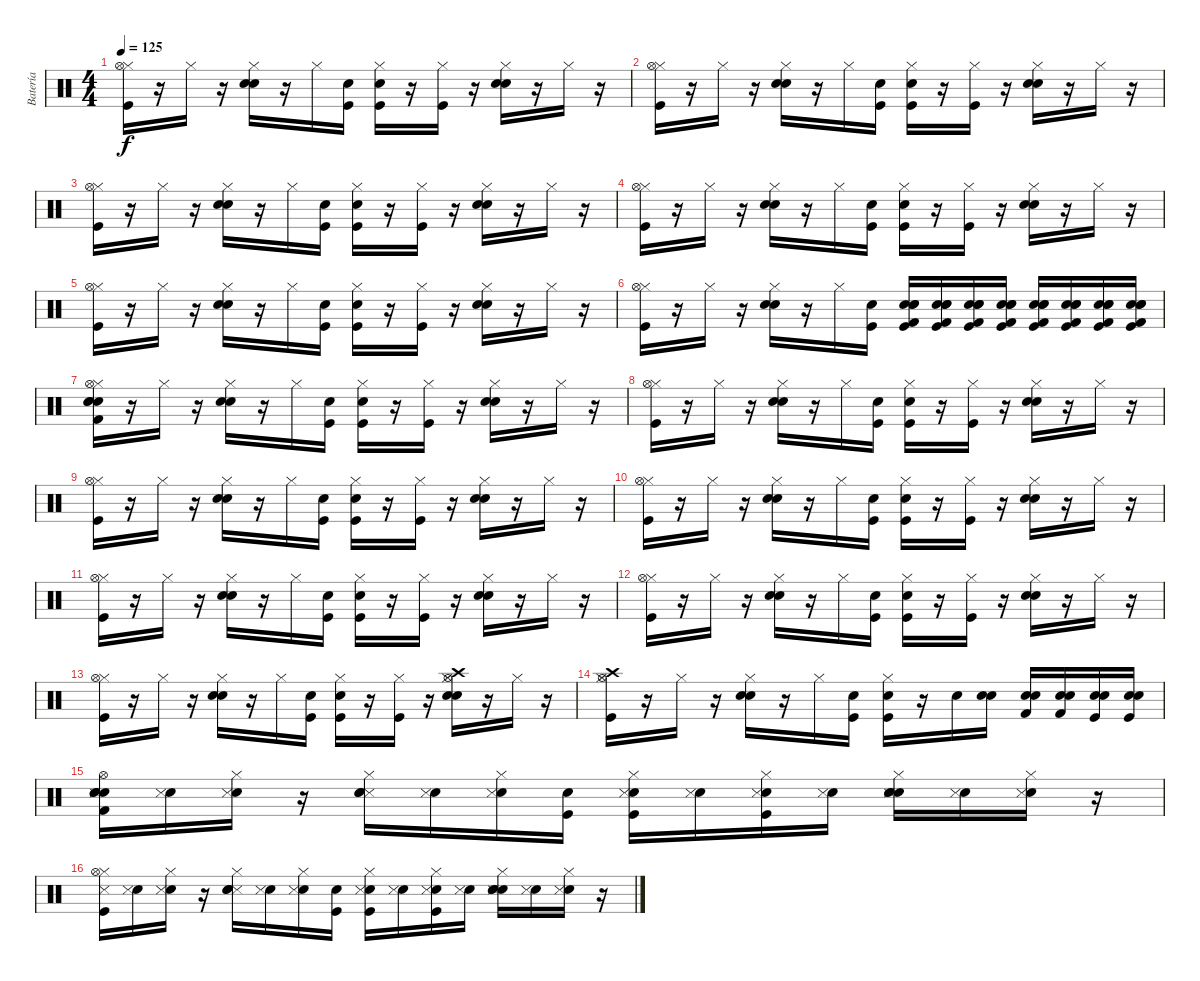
\track ("Batería" "Batería") {instrument percussion}
\staff {score}
\articulation defaults
\ts (4 4)
\tempo 125
\clef neutral
\ks c
("Hi-Hat (closed)" "Kick (hit)" "Hi-Hat (open)").16{dy f} r.16 "Hi-Hat (closed)".16 r.16 ("Snare (hit) 2" "Electric Snare (hit)" "Hi-Hat (closed)").16 r.16 "Hi-Hat (closed)".16 ("Snare (hit)" "Kick (hit)").16 ("Snare (hit)" "Hi-Hat (closed)" "Kick (hit)").16 r.16 ("Hi-Hat (closed)" "Kick (hit)").16 r.16 ("Hi-Hat (closed)" "Snare (hit) 2" "Electric Snare (hit)").16 r.16 "Hi-Hat (closed)".16 r.16 |
("Hi-Hat (closed)" "Kick (hit)" "Hi-Hat (open)").16 r.16 "Hi-Hat (closed)".16 r.16 ("Snare (hit) 2" "Electric Snare (hit)" "Hi-Hat (closed)").16 r.16 "Hi-Hat (closed)".16 ("Snare (hit)" "Kick (hit)").16 ("Snare (hit)" "Hi-Hat (closed)" "Kick (hit)").16 r.16 ("Hi-Hat (closed)" "Kick (hit)").16 r.16 ("Hi-Hat (closed)" "Snare (hit) 2" "Electric Snare (hit)").16 r.16 "Hi-Hat (closed)".16 r.16 |
("Hi-Hat (closed)" "Kick (hit)" "Hi-Hat (open)").16 r.16 "Hi-Hat (closed)".16 r.16 ("Snare (hit) 2" "Electric Snare (hit)" "Hi-Hat (closed)").16 r.16 "Hi-Hat (closed)".16 ("Snare (hit)" "Kick (hit)").16 ("Snare (hit)" "Hi-Hat (closed)" "Kick (hit)").16 r.16 ("Hi-Hat (closed)" "Kick (hit)").16 r.16 ("Hi-Hat (closed)" "Snare (hit) 2" "Electric Snare (hit)").16 r.16 "Hi-Hat (closed)".16 r.16 |
("Hi-Hat (closed)" "Kick (hit)" "Hi-Hat (open)").16 r.16 "Hi-Hat (closed)".16 r.16 ("Snare (hit) 2" "Electric Snare (hit)" "Hi-Hat (closed)").16 r.16 "Hi-Hat (closed)".16 ("Snare (hit)" "Kick (hit)").16 ("Snare (hit)" "Hi-Hat (closed)" "Kick (hit)").16 r.16 ("Hi-Hat (closed)" "Kick (hit)").16 r.16 ("Hi-Hat (closed)" "Snare (hit) 2" "Electric Snare (hit)").16 r.16 "Hi-Hat (closed)".16 r.16 |
("Hi-Hat (closed)" "Kick (hit)" "Hi-Hat (open)").16 r.16 "Hi-Hat (closed)".16 r.16 ("Snare (hit) 2" "Electric Snare (hit)" "Hi-Hat (closed)").16 r.16 "Hi-Hat (closed)".16 ("Snare (hit)" "Kick (hit)").16 ("Snare (hit)" "Hi-Hat (closed)" "Kick (hit)").16 r.16 ("Hi-Hat (closed)" "Kick (hit)").16 r.16 ("Hi-Hat (closed)" "Snare (hit) 2" "Electric Snare (hit)").16 r.16 "Hi-Hat (closed)".16 r.16 |
("Hi-Hat (closed)" "Kick (hit)" "Hi-Hat (open)").16 r.16 "Hi-Hat (closed)".16 r.16 ("Snare (hit) 2" "Electric Snare (hit)" "Hi-Hat (closed)").16 r.16 "Hi-Hat (closed)".16 ("Snare (hit)" "Kick (hit)").16 ("Snare (hit)" "Kick (hit)" "Kick (hit) 2" "Snare (hit) 2" "Electric Snare (hit)").16 ("Snare (hit)" "Kick (hit)" "Kick (hit) 2" "Snare (hit) 2" "Electric Snare (hit)").16 ("Snare (hit)" "Kick (hit)" "Kick (hit) 2" "Snare (hit) 2" "Electric Snare (hit)").16 ("Snare (hit)" "Kick (hit)" "Kick (hit) 2" "Snare (hit) 2" "Electric Snare (hit)").16 ("Snare (hit)" "Kick (hit)" "Snare (hit) 2" "Kick (hit) 2" "Electric Snare (hit)").16 ("Snare (hit)" "Kick (hit)" "Snare (hit) 2" "Kick (hit) 2" "Electric Snare (hit)").16 ("Snare (hit)" "Kick (hit) 2" "Electric Snare (hit)" "Snare (hit) 2" "Kick (hit)").16 ("Snare (hit)" "Kick (hit) 2" "Electric Snare (hit)" "Snare (hit) 2" "Kick (hit)").16 |
("Snare (hit)" "Kick (hit) 2" "Snare (hit) 2" "Electric Snare (hit)" "Hi-Hat (closed)" "Hi-Hat (open)").16 r.16 "Hi-Hat (closed)".16 r.16 ("Snare (hit) 2" "Electric Snare (hit)" "Hi-Hat (closed)").16 r.16 "Hi-Hat (closed)".16 ("Snare (hit)" "Kick (hit)").16 ("Snare (hit)" "Hi-Hat (closed)" "Kick (hit)").16 r.16 ("Hi-Hat (closed)" "Kick (hit)").16 r.16 ("Hi-Hat (closed)" "Snare (hit) 2" "Electric Snare (hit)").16 r.16 "Hi-Hat (closed)".16 r.16 |
("Hi-Hat (closed)" "Kick (hit)" "Hi-Hat (open)").16 r.16 "Hi-Hat (closed)".16 r.16 ("Snare (hit) 2" "Electric Snare (hit)" "Hi-Hat (closed)").16 r.16 "Hi-Hat (closed)".16 ("Snare (hit)" "Kick (hit)").16 ("Snare (hit)" "Hi-Hat (closed)" "Kick (hit)").16 r.16 ("Hi-Hat (closed)" "Kick (hit)").16 r.16 ("Hi-Hat (closed)" "Snare (hit) 2" "Electric Snare (hit)").16 r.16 "Hi-Hat (closed)".16 r.16 |
("Kick (hit)" "Hi-Hat (closed)" "Hi-Hat (open)").16 r.16 "Hi-Hat (closed)".16 r.16 ("Snare (hit) 2" "Electric Snare (hit)" "Hi-Hat (closed)").16 r.16 "Hi-Hat (closed)".16 ("Snare (hit)" "Kick (hit)").16 ("Snare (hit)" "Kick (hit)" "Hi-Hat (closed)").16 r.16 ("Kick (hit)" "Hi-Hat (closed)").16 r.16 ("Snare (hit) 2" "Electric Snare (hit)" "Hi-Hat (closed)").16 r.16 "Hi-Hat (closed)".16 r.16 |
("Kick (hit)" "Hi-Hat (closed)" "Hi-Hat (open)").16 r.16 "Hi-Hat (closed)".16 r.16 ("Snare (hit) 2" "Electric Snare (hit)" "Hi-Hat (closed)").16 r.16 "Hi-Hat (closed)".16 ("Snare (hit)" "Kick (hit)").16 ("Snare (hit)" "Kick (hit)" "Hi-Hat (closed)").16 r.16 ("Kick (hit)" "Hi-Hat (closed)").16 r.16 ("Snare (hit) 2" "Electric Snare (hit)" "Hi-Hat (closed)").16 r.16 "Hi-Hat (closed)".16 r.16 |
("Kick (hit)" "Hi-Hat (closed)" "Hi-Hat (open)").16 r.16 "Hi-Hat (closed)".16 r.16 ("Snare (hit) 2" "Electric Snare (hit)" "Hi-Hat (closed)").16 r.16 "Hi-Hat (closed)".16 ("Snare (hit)" "Kick (hit)").16 ("Snare (hit)" "Kick (hit)" "Hi-Hat (closed)").16 r.16 ("Kick (hit)" "Hi-Hat (closed)").16 r.16 ("Snare (hit) 2" "Electric Snare (hit)" "Hi-Hat (closed)").16 r.16 "Hi-Hat (closed)".16 r.16 |
("Kick (hit)" "Hi-Hat (closed)" "Hi-Hat (open)").16 r.16 "Hi-Hat (closed)".16 r.16 ("Snare (hit) 2" "Electric Snare (hit)" "Hi-Hat (closed)").16 r.16 "Hi-Hat (closed)".16 ("Snare (hit)" "Kick (hit)").16 ("Snare (hit)" "Kick (hit)" "Hi-Hat (closed)").16 r.16 ("Kick (hit)" "Hi-Hat (closed)").16 r.16 ("Snare (hit) 2" "Electric Snare (hit)" "Hi-Hat (closed)").16 r.16 "Hi-Hat (closed)".16 r.16 |
("Kick (hit)" "Hi-Hat (closed)" "Hi-Hat (open)").16 r.16 "Hi-Hat (closed)".16 r.16 ("Electric Snare (hit)" "Snare (hit) 2" "Hi-Hat (closed)").16 r.16 "Hi-Hat (closed)".16 ("Snare (hit)" "Kick (hit)").16 ("Snare (hit)" "Kick (hit)" "Hi-Hat (closed)").16 r.16 ("Kick (hit)" "Hi-Hat (closed)").16 r.16 ("Hi-Hat (open)" "Crash high (hit)" "Snare (hit) 2" "Electric Snare (hit)" "Hi-Hat (closed)").16 r.16 "Hi-Hat (closed)".16 r.16 |
("Crash high (hit)" "Kick (hit)" "Hi-Hat (closed)" "Hi-Hat (open)").16 r.16 "Hi-Hat (closed)".16 r.16 ("Snare (hit) 2" "Electric Snare (hit)" "Hi-Hat (closed)").16 r.16 "Hi-Hat (closed)".16 ("Snare (hit)" "Kick (hit)").16 ("Snare (hit)" "Kick (hit)" "Hi-Hat (closed)").16 r.16 "Electric Snare (hit)".16 ("Snare (hit)" "Electric Snare (hit)").16 ("Snare (hit)" "Kick (hit) 2" "Electric Snare (hit)").16 ("Snare (hit)" "Kick (hit) 2" "Electric Snare (hit)").16 ("Snare (hit)" "Snare (hit) 2" "Kick (hit)").16 ("Snare (hit)" "Snare (hit) 2" "Kick (hit)").16 |
("Snare (hit)" "Snare (side stick) 3" "Kick (hit) 2" "Snare (hit) 2" "Electric Snare (hit)" "Hi-Hat (open)").16 ("Snare (hit)" "Snare (side stick) 3").16 ("Snare (hit)" "Snare (side stick) 3" "Hi-Hat (closed)").16 r.16 ("Snare (side stick) 3" "Snare (hit) 2" "Electric Snare (hit)" "Hi-Hat (closed)").16 ("Snare (hit)" "Snare (side stick) 3").16 ("Snare (hit)" "Snare (side stick) 3" "Hi-Hat (closed)").16 ("Snare (hit)" "Kick (hit)").16 ("Snare (hit)" "Snare (side stick) 3" "Hi-Hat (closed)" "Kick (hit)").16 ("Snare (hit)" "Snare (side stick) 3").16 ("Snare (hit)" "Snare (side stick) 3" "Hi-Hat (closed)" "Kick (hit)").16 ("Snare (hit)" "Snare (side stick) 3").16 ("Snare (hit)" "Snare (side stick) 3" "Hi-Hat (closed)" "Snare (hit) 2" "Electric Snare (hit)").16 ("Snare (hit)" "Snare (side stick) 3").16 ("Snare (hit)" "Snare (side stick) 3" "Hi-Hat (closed)").16 r.16 |
("Snare (side stick) 3" "Hi-Hat (closed)" "Kick (hit)" "Hi-Hat (open)").16 ("Snare (hit)" "Snare (side stick) 3").16 ("Snare (hit)" "Snare (side stick) 3" "Hi-Hat (closed)").16 r.16 ("Snare (side stick) 3" "Snare (hit) 2" "Electric Snare (hit)" "Hi-Hat (closed)").16 ("Snare (hit)" "Snare (side stick) 3").16 ("Snare (hit)" "Snare (side stick) 3" "Hi-Hat (closed)").16 ("Snare (hit)" "Kick (hit)").16 ("Snare (hit)" "Snare (side stick) 3" "Hi-Hat (closed)" "Kick (hit)").16 ("Snare (hit)" "Snare (side stick) 3").16 ("Snare (hit)" "Snare (side stick) 3" "Hi-Hat (closed)" "Kick (hit)").16 ("Snare (hit)" "Snare (side stick) 3").16 ("Snare (hit)" "Snare (side stick) 3" "Hi-Hat (closed)" "Snare (hit) 2" "Electric Snare (hit)").16 ("Snare (hit)" "Snare (side stick) 3").16 ("Snare (hit)" "Snare (side stick) 3" "Hi-Hat (closed)").16 r.16
